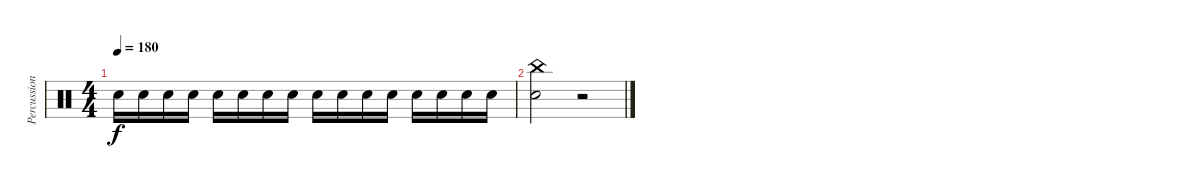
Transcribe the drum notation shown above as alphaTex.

\track ("Percussion" "Percussion") {instrument percussion}
\staff {score}
\articulation defaults
\ts (4 4)
\tempo 180
\clef neutral
\ks c "Electric Snare (hit)".16{dy f} "Electric Snare (hit)".16 "Electric Snare (hit)".16 "Electric Snare (hit)".16 "Electric Snare (hit)".16 "Electric Snare (hit)".16 "Electric Snare (hit)".16 "Electric Snare (hit)".16 "Electric Snare (hit)".16 "Electric Snare (hit)".16 "Electric Snare (hit)".16 "Electric Snare (hit)".16 "Electric Snare (hit)".16 "Electric Snare (hit)".16 "Electric Snare (hit)".16 "Electric Snare (hit)".16
|
("China (hit)" "Electric Snare (hit)").2 r.2
